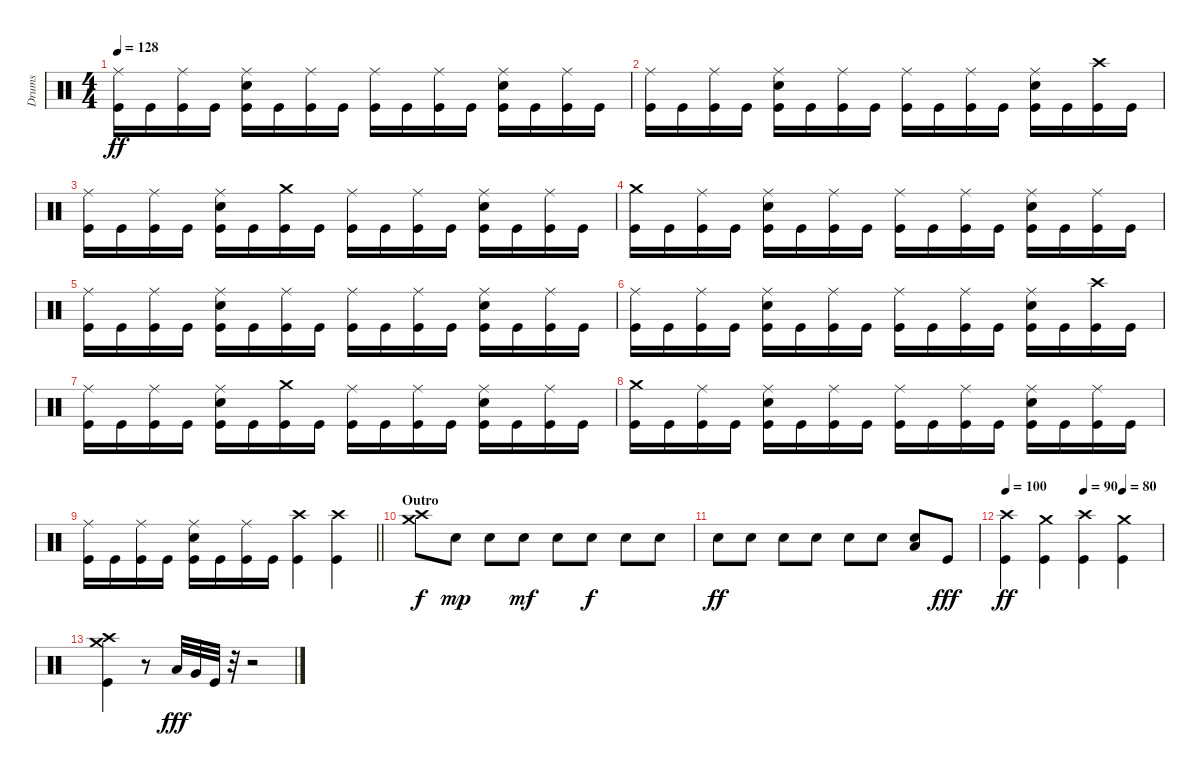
\track ("Drums" "Drums") {instrument percussion}
\staff {score}
\articulation defaults
\ts (4 4)
\tempo 128
\clef neutral
\ks c
("Ride (middle)" "Kick (hit)").16{dy ff} "Kick (hit)".16 ("Ride (middle)" "Kick (hit)").16 "Kick (hit)".16 ("Ride (middle)" "Electric Snare (hit)" "Kick (hit)").16 "Kick (hit)".16 ("Ride (middle)" "Kick (hit)").16 "Kick (hit)".16 ("Ride (middle)" "Kick (hit)").16 "Kick (hit)".16 ("Ride (middle)" "Kick (hit)").16 "Kick (hit)".16 ("Ride (middle)" "Electric Snare (hit)" "Kick (hit)").16 "Kick (hit)".16 ("Ride (middle)" "Kick (hit)").16 "Kick (hit)".16 |
("Ride (middle)" "Kick (hit)").16 "Kick (hit)".16 ("Ride (middle)" "Kick (hit)").16 "Kick (hit)".16 ("Ride (middle)" "Electric Snare (hit)" "Kick (hit)").16 "Kick (hit)".16 ("Ride (middle)" "Kick (hit)").16 "Kick (hit)".16 ("Ride (middle)" "Kick (hit)").16 "Kick (hit)".16 ("Ride (middle)" "Kick (hit)").16 "Kick (hit)".16 ("Ride (middle)" "Electric Snare (hit)" "Kick (hit)").16 "Kick (hit)".16 ("Crash high (hit)" "Kick (hit)").16 "Kick (hit)".16 |
("Ride (middle)" "Kick (hit)").16 "Kick (hit)".16 ("Ride (middle)" "Kick (hit)").16 "Kick (hit)".16 ("Ride (middle)" "Electric Snare (hit)" "Kick (hit)").16 "Kick (hit)".16 ("Crash medium (hit)" "Kick (hit)").16 "Kick (hit)".16 ("Ride (middle)" "Kick (hit)").16 "Kick (hit)".16 ("Ride (middle)" "Kick (hit)").16 "Kick (hit)".16 ("Ride (middle)" "Electric Snare (hit)" "Kick (hit)").16 "Kick (hit)".16 ("Ride (middle)" "Kick (hit)").16 "Kick (hit)".16 |
("Crash medium (hit)" "Kick (hit)").16 "Kick (hit)".16 ("Ride (middle)" "Kick (hit)").16 "Kick (hit)".16 ("Ride (middle)" "Electric Snare (hit)" "Kick (hit)").16 "Kick (hit)".16 ("Ride (middle)" "Kick (hit)").16 "Kick (hit)".16 ("Ride (middle)" "Kick (hit)").16 "Kick (hit)".16 ("Ride (middle)" "Kick (hit)").16 "Kick (hit)".16 ("Ride (middle)" "Electric Snare (hit)" "Kick (hit)").16 "Kick (hit)".16 ("Ride (middle)" "Kick (hit)").16 "Kick (hit)".16 |
("Ride (middle)" "Kick (hit)").16 "Kick (hit)".16 ("Ride (middle)" "Kick (hit)").16 "Kick (hit)".16 ("Ride (middle)" "Electric Snare (hit)" "Kick (hit)").16 "Kick (hit)".16 ("Ride (middle)" "Kick (hit)").16 "Kick (hit)".16 ("Ride (middle)" "Kick (hit)").16 "Kick (hit)".16 ("Ride (middle)" "Kick (hit)").16 "Kick (hit)".16 ("Ride (middle)" "Electric Snare (hit)" "Kick (hit)").16 "Kick (hit)".16 ("Ride (middle)" "Kick (hit)").16 "Kick (hit)".16 |
("Ride (middle)" "Kick (hit)").16 "Kick (hit)".16 ("Ride (middle)" "Kick (hit)").16 "Kick (hit)".16 ("Ride (middle)" "Electric Snare (hit)" "Kick (hit)").16 "Kick (hit)".16 ("Ride (middle)" "Kick (hit)").16 "Kick (hit)".16 ("Ride (middle)" "Kick (hit)").16 "Kick (hit)".16 ("Ride (middle)" "Kick (hit)").16 "Kick (hit)".16 ("Ride (middle)" "Electric Snare (hit)" "Kick (hit)").16 "Kick (hit)".16 ("Crash high (hit)" "Kick (hit)").16 "Kick (hit)".16 |
("Ride (middle)" "Kick (hit)").16 "Kick (hit)".16 ("Ride (middle)" "Kick (hit)").16 "Kick (hit)".16 ("Ride (middle)" "Electric Snare (hit)" "Kick (hit)").16 "Kick (hit)".16 ("Crash medium (hit)" "Kick (hit)").16 "Kick (hit)".16 ("Ride (middle)" "Kick (hit)").16 "Kick (hit)".16 ("Ride (middle)" "Kick (hit)").16 "Kick (hit)".16 ("Ride (middle)" "Electric Snare (hit)" "Kick (hit)").16 "Kick (hit)".16 ("Ride (middle)" "Kick (hit)").16 "Kick (hit)".16 |
("Crash medium (hit)" "Kick (hit)").16 "Kick (hit)".16 ("Ride (middle)" "Kick (hit)").16 "Kick (hit)".16 ("Ride (middle)" "Electric Snare (hit)" "Kick (hit)").16 "Kick (hit)".16 ("Ride (middle)" "Kick (hit)").16 "Kick (hit)".16 ("Ride (middle)" "Kick (hit)").16 "Kick (hit)".16 ("Ride (middle)" "Kick (hit)").16 "Kick (hit)".16 ("Ride (middle)" "Electric Snare (hit)" "Kick (hit)").16 "Kick (hit)".16 ("Ride (middle)" "Kick (hit)").16 "Kick (hit)".16 |
\barLineRight lightlight
("Ride (middle)" "Kick (hit)").16 "Kick (hit)".16 ("Ride (middle)" "Kick (hit)").16 "Kick (hit)".16 ("Ride (middle)" "Electric Snare (hit)" "Kick (hit)").16 "Kick (hit)".16 ("Ride (middle)" "Kick (hit)").16 "Kick (hit)".16 ("Crash high (hit)" "Kick (hit)").4 ("Crash high (hit)" "Kick (hit)").4 |
\section ("" "Outro")
("Crash medium (hit)" "Crash high (hit)").8{dy f} "Electric Snare (hit)".8{dy mp} "Electric Snare (hit)".8 "Electric Snare (hit)".8{dy mf} "Electric Snare (hit)".8 "Electric Snare (hit)".8{dy f} "Electric Snare (hit)".8 "Electric Snare (hit)".8 |
"Electric Snare (hit)".8{dy ff} "Electric Snare (hit)".8 "Electric Snare (hit)".8 "Electric Snare (hit)".8 "Electric Snare (hit)".8 "Electric Snare (hit)".8 ("Low Tom (hit)" "Electric Snare (hit)").8 "Kick (hit)".8{dy fff} |
\tempo 100
\tempo (90 0.5)
\tempo (80 0.75)
("Crash high (hit)" "Kick (hit)").4{dy ff} ("Crash medium (hit)" "Kick (hit)").4 ("Crash high (hit)" "Kick (hit)").4 ("Crash medium (hit)" "Kick (hit)").4 |
("Crash high (hit)" "Crash medium (hit)" "Kick (hit)").4 r.8 "Low Tom (hit)".32{dy fff} "Very Low Tom (hit)".32 "Kick (hit)".32 r.32 r.2
